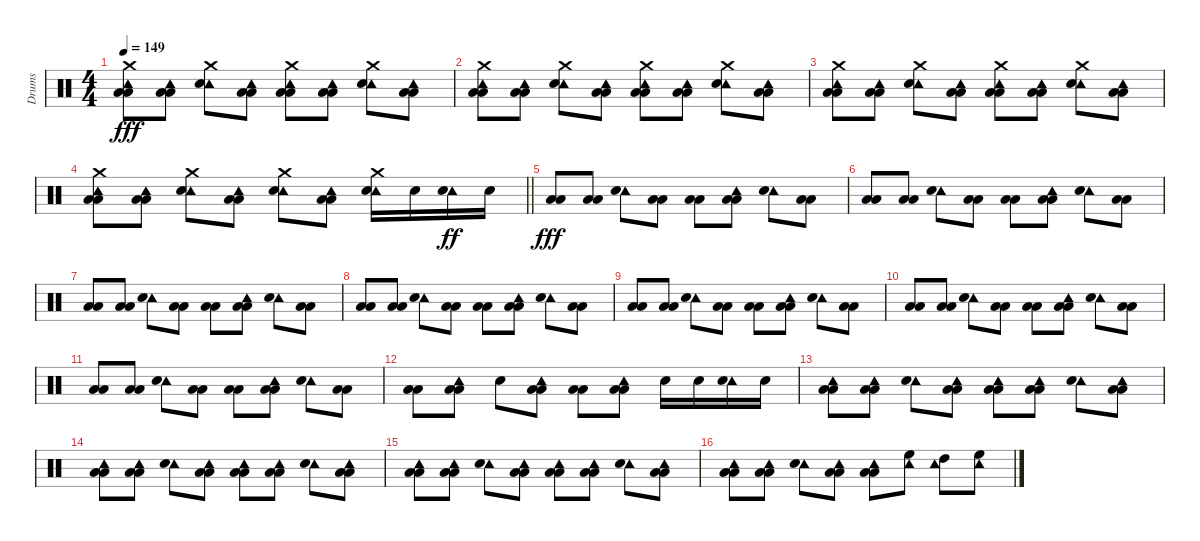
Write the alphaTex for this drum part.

\track ("Drums" "Drums") {instrument percussion}
\staff {score}
\articulation defaults
\ts (4 4)
\tempo 149
\clef neutral
\ks c
("Crash medium (hit)" "Tambourine (hit)" "Low Floor Tom (hit)" "Low Floor Tom (hit)").8{dy fff} ("Tambourine (hit)" "Low Floor Tom (hit)" "Low Floor Tom (hit)").8 ("Crash medium (hit)" "Tambourine (hit)" "Snare (hit) 2").8 ("Tambourine (hit)" "Low Floor Tom (hit)" "Low Floor Tom (hit)").8 ("Crash medium (hit)" "Tambourine (hit)" "Low Floor Tom (hit)" "Low Floor Tom (hit)").8 ("Tambourine (hit)" "Low Floor Tom (hit)" "Low Floor Tom (hit)").8 ("Crash medium (hit)" "Tambourine (hit)" "Snare (hit) 2").8 ("Tambourine (hit)" "Low Floor Tom (hit)" "Low Floor Tom (hit)").8 |
("Crash medium (hit)" "Tambourine (hit)" "Low Floor Tom (hit)" "Low Floor Tom (hit)").8 ("Tambourine (hit)" "Low Floor Tom (hit)" "Low Floor Tom (hit)").8 ("Crash medium (hit)" "Tambourine (hit)" "Snare (hit) 2").8 ("Tambourine (hit)" "Low Floor Tom (hit)" "Low Floor Tom (hit)").8 ("Crash medium (hit)" "Tambourine (hit)" "Low Floor Tom (hit)" "Low Floor Tom (hit)").8 ("Tambourine (hit)" "Low Floor Tom (hit)" "Low Floor Tom (hit)").8 ("Crash medium (hit)" "Tambourine (hit)" "Snare (hit) 2").8 ("Tambourine (hit)" "Low Floor Tom (hit)" "Low Floor Tom (hit)").8 |
("Crash medium (hit)" "Tambourine (hit)" "Low Floor Tom (hit)" "Low Floor Tom (hit)").8 ("Tambourine (hit)" "Low Floor Tom (hit)" "Low Floor Tom (hit)").8 ("Crash medium (hit)" "Tambourine (hit)" "Snare (hit) 2").8 ("Tambourine (hit)" "Low Floor Tom (hit)" "Low Floor Tom (hit)").8 ("Crash medium (hit)" "Tambourine (hit)" "Low Floor Tom (hit)" "Low Floor Tom (hit)").8 ("Tambourine (hit)" "Low Floor Tom (hit)" "Low Floor Tom (hit)").8 ("Crash medium (hit)" "Tambourine (hit)" "Snare (hit) 2").8 ("Tambourine (hit)" "Low Floor Tom (hit)" "Low Floor Tom (hit)").8 |
\barLineRight lightlight
("Crash medium (hit)" "Tambourine (hit)" "Low Floor Tom (hit)" "Low Floor Tom (hit)").8 ("Tambourine (hit)" "Low Floor Tom (hit)" "Low Floor Tom (hit)").8 ("Crash medium (hit)" "Tambourine (hit)" "Snare (hit) 2").8 ("Tambourine (hit)" "Low Floor Tom (hit)" "Low Floor Tom (hit)").8 ("Crash medium (hit)" "Tambourine (hit)" "Snare (hit) 2").8 ("Tambourine (hit)" "Low Floor Tom (hit)" "Low Floor Tom (hit)").8 ("Crash medium (hit)" "Tambourine (hit)" "Snare (hit) 2").16 "Snare (hit) 2".16 ("Tambourine (hit)" "Snare (hit) 2").16{dy ff} "Snare (hit) 2".16 |
("Low Floor Tom (hit)" "Low Floor Tom (hit)").8{dy fff} ("Low Floor Tom (hit)" "Low Floor Tom (hit)").8 ("Tambourine (hit)" "Snare (hit) 2").8 ("Low Floor Tom (hit)" "Low Floor Tom (hit)").8 ("Low Floor Tom (hit)" "Low Floor Tom (hit)").8 ("Tambourine (hit)" "Low Floor Tom (hit)" "Low Floor Tom (hit)").8 ("Tambourine (hit)" "Snare (hit) 2").8 ("Low Floor Tom (hit)" "Low Floor Tom (hit)").8 |
("Low Floor Tom (hit)" "Low Floor Tom (hit)").8 ("Low Floor Tom (hit)" "Low Floor Tom (hit)").8 ("Tambourine (hit)" "Snare (hit) 2").8 ("Low Floor Tom (hit)" "Low Floor Tom (hit)").8 ("Low Floor Tom (hit)" "Low Floor Tom (hit)").8 ("Tambourine (hit)" "Low Floor Tom (hit)" "Low Floor Tom (hit)").8 ("Tambourine (hit)" "Snare (hit) 2").8 ("Low Floor Tom (hit)" "Low Floor Tom (hit)").8 |
("Low Floor Tom (hit)" "Low Floor Tom (hit)").8 ("Low Floor Tom (hit)" "Low Floor Tom (hit)").8 ("Tambourine (hit)" "Snare (hit) 2").8 ("Low Floor Tom (hit)" "Low Floor Tom (hit)").8 ("Low Floor Tom (hit)" "Low Floor Tom (hit)").8 ("Tambourine (hit)" "Low Floor Tom (hit)" "Low Floor Tom (hit)").8 ("Tambourine (hit)" "Snare (hit) 2").8 ("Low Floor Tom (hit)" "Low Floor Tom (hit)").8 |
("Low Floor Tom (hit)" "Low Floor Tom (hit)").8 ("Low Floor Tom (hit)" "Low Floor Tom (hit)").8 ("Tambourine (hit)" "Snare (hit) 2").8 ("Low Floor Tom (hit)" "Low Floor Tom (hit)").8 ("Low Floor Tom (hit)" "Low Floor Tom (hit)").8 ("Tambourine (hit)" "Low Floor Tom (hit)" "Low Floor Tom (hit)").8 ("Tambourine (hit)" "Snare (hit) 2").8 ("Low Floor Tom (hit)" "Low Floor Tom (hit)").8 |
("Low Floor Tom (hit)" "Low Floor Tom (hit)").8 ("Low Floor Tom (hit)" "Low Floor Tom (hit)").8 ("Tambourine (hit)" "Snare (hit) 2").8 ("Low Floor Tom (hit)" "Low Floor Tom (hit)").8 ("Low Floor Tom (hit)" "Low Floor Tom (hit)").8 ("Tambourine (hit)" "Low Floor Tom (hit)" "Low Floor Tom (hit)").8 ("Tambourine (hit)" "Snare (hit) 2").8 ("Low Floor Tom (hit)" "Low Floor Tom (hit)").8 |
("Low Floor Tom (hit)" "Low Floor Tom (hit)").8 ("Low Floor Tom (hit)" "Low Floor Tom (hit)").8 ("Tambourine (hit)" "Snare (hit) 2").8 ("Low Floor Tom (hit)" "Low Floor Tom (hit)").8 ("Low Floor Tom (hit)" "Low Floor Tom (hit)").8 ("Tambourine (hit)" "Low Floor Tom (hit)" "Low Floor Tom (hit)").8 ("Tambourine (hit)" "Snare (hit) 2").8 ("Low Floor Tom (hit)" "Low Floor Tom (hit)").8 |
("Low Floor Tom (hit)" "Low Floor Tom (hit)").8 ("Low Floor Tom (hit)" "Low Floor Tom (hit)").8 ("Tambourine (hit)" "Snare (hit) 2").8 ("Low Floor Tom (hit)" "Low Floor Tom (hit)").8 ("Low Floor Tom (hit)" "Low Floor Tom (hit)").8 ("Tambourine (hit)" "Low Floor Tom (hit)" "Low Floor Tom (hit)").8 ("Tambourine (hit)" "Snare (hit) 2").8 ("Low Floor Tom (hit)" "Low Floor Tom (hit)").8 |
("Low Floor Tom (hit)" "Low Floor Tom (hit)").8 ("Tambourine (hit)" "Low Floor Tom (hit)" "Low Floor Tom (hit)").8 "Snare (hit) 2".8 ("Tambourine (hit)" "Low Floor Tom (hit)" "Low Floor Tom (hit)").8 ("Low Floor Tom (hit)" "Low Floor Tom (hit)").8 ("Tambourine (hit)" "Low Floor Tom (hit)" "Low Floor Tom (hit)").8 "Snare (hit) 2".16 "Snare (hit) 2".16 ("Tambourine (hit)" "Snare (hit) 2").16 "Snare (hit) 2".16 |
("Tambourine (hit)" "Low Floor Tom (hit)" "Low Floor Tom (hit)").8 ("Tambourine (hit)" "Low Floor Tom (hit)" "Low Floor Tom (hit)").8 ("Tambourine (hit)" "Snare (hit) 2").8 ("Tambourine (hit)" "Low Floor Tom (hit)" "Low Floor Tom (hit)").8 ("Tambourine (hit)" "Low Floor Tom (hit)" "Low Floor Tom (hit)").8 ("Tambourine (hit)" "Low Floor Tom (hit)" "Low Floor Tom (hit)").8 ("Tambourine (hit)" "Snare (hit) 2").8 ("Tambourine (hit)" "Low Floor Tom (hit)" "Low Floor Tom (hit)").8 |
("Tambourine (hit)" "Low Floor Tom (hit)" "Low Floor Tom (hit)").8 ("Tambourine (hit)" "Low Floor Tom (hit)" "Low Floor Tom (hit)").8 ("Tambourine (hit)" "Snare (hit) 2").8 ("Tambourine (hit)" "Low Floor Tom (hit)" "Low Floor Tom (hit)").8 ("Tambourine (hit)" "Low Floor Tom (hit)" "Low Floor Tom (hit)").8 ("Tambourine (hit)" "Low Floor Tom (hit)" "Low Floor Tom (hit)").8 ("Tambourine (hit)" "Snare (hit) 2").8 ("Tambourine (hit)" "Low Floor Tom (hit)" "Low Floor Tom (hit)").8 |
("Tambourine (hit)" "Low Floor Tom (hit)" "Low Floor Tom (hit)").8 ("Tambourine (hit)" "Low Floor Tom (hit)" "Low Floor Tom (hit)").8 ("Tambourine (hit)" "Snare (hit) 2").8 ("Tambourine (hit)" "Low Floor Tom (hit)" "Low Floor Tom (hit)").8 ("Tambourine (hit)" "Low Floor Tom (hit)" "Low Floor Tom (hit)").8 ("Tambourine (hit)" "Low Floor Tom (hit)" "Low Floor Tom (hit)").8 ("Tambourine (hit)" "Snare (hit) 2").8 ("Tambourine (hit)" "Low Floor Tom (hit)" "Low Floor Tom (hit)").8 |
("Tambourine (hit)" "Low Floor Tom (hit)" "Low Floor Tom (hit)").8 ("Tambourine (hit)" "Low Floor Tom (hit)" "Low Floor Tom (hit)").8 ("Tambourine (hit)" "Snare (hit) 2").8 ("Tambourine (hit)" "Low Floor Tom (hit)" "Low Floor Tom (hit)").8 ("Tambourine (hit)" "Low Floor Tom (hit)" "Low Floor Tom (hit)").8 ("Tambourine (hit)" "High Floor Tom (hit)").8 ("Tambourine (hit)" "High Tom (hit)").8 ("Tambourine (hit)" "High Floor Tom (hit)").8
